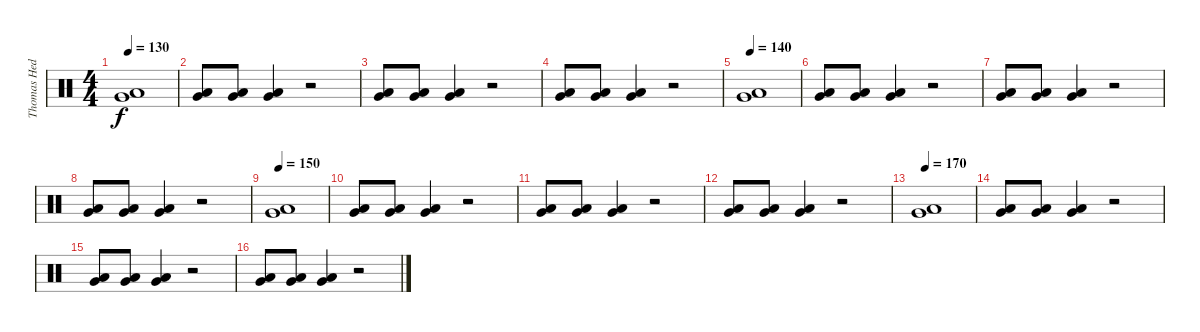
\track ("Thomas Hedlund" "Thomas Hed") {instrument percussion}
\staff {score}
\articulation defaults
\ts (4 4)
\tempo 130
\clef neutral
\ks c
("Very Low Tom (hit)" "Low Floor Tom (hit)").1{dy f} |
("Very Low Tom (hit)" "Low Floor Tom (hit)").8 ("Very Low Tom (hit)" "Low Floor Tom (hit)").8 ("Very Low Tom (hit)" "Low Floor Tom (hit)").4 r.2 |
("Very Low Tom (hit)" "Low Floor Tom (hit)").8 ("Very Low Tom (hit)" "Low Floor Tom (hit)").8 ("Very Low Tom (hit)" "Low Floor Tom (hit)").4 r.2 |
("Very Low Tom (hit)" "Low Floor Tom (hit)").8 ("Very Low Tom (hit)" "Low Floor Tom (hit)").8 ("Very Low Tom (hit)" "Low Floor Tom (hit)").4 r.2 |
\tempo 140
("Very Low Tom (hit)" "Low Floor Tom (hit)").1 |
("Very Low Tom (hit)" "Low Floor Tom (hit)").8 ("Very Low Tom (hit)" "Low Floor Tom (hit)").8 ("Very Low Tom (hit)" "Low Floor Tom (hit)").4 r.2 |
("Very Low Tom (hit)" "Low Floor Tom (hit)").8 ("Very Low Tom (hit)" "Low Floor Tom (hit)").8 ("Very Low Tom (hit)" "Low Floor Tom (hit)").4 r.2 |
("Very Low Tom (hit)" "Low Floor Tom (hit)").8 ("Very Low Tom (hit)" "Low Floor Tom (hit)").8 ("Very Low Tom (hit)" "Low Floor Tom (hit)").4 r.2 |
\tempo 150
("Very Low Tom (hit)" "Low Floor Tom (hit)").1 |
("Very Low Tom (hit)" "Low Floor Tom (hit)").8 ("Very Low Tom (hit)" "Low Floor Tom (hit)").8 ("Very Low Tom (hit)" "Low Floor Tom (hit)").4 r.2 |
("Very Low Tom (hit)" "Low Floor Tom (hit)").8 ("Very Low Tom (hit)" "Low Floor Tom (hit)").8 ("Very Low Tom (hit)" "Low Floor Tom (hit)").4 r.2 |
("Very Low Tom (hit)" "Low Floor Tom (hit)").8 ("Very Low Tom (hit)" "Low Floor Tom (hit)").8 ("Very Low Tom (hit)" "Low Floor Tom (hit)").4 r.2 |
\tempo 170
("Very Low Tom (hit)" "Low Floor Tom (hit)").1 |
("Very Low Tom (hit)" "Low Floor Tom (hit)").8 ("Very Low Tom (hit)" "Low Floor Tom (hit)").8 ("Very Low Tom (hit)" "Low Floor Tom (hit)").4 r.2 |
("Very Low Tom (hit)" "Low Floor Tom (hit)").8 ("Very Low Tom (hit)" "Low Floor Tom (hit)").8 ("Very Low Tom (hit)" "Low Floor Tom (hit)").4 r.2 |
("Very Low Tom (hit)" "Low Floor Tom (hit)").8 ("Very Low Tom (hit)" "Low Floor Tom (hit)").8 ("Very Low Tom (hit)" "Low Floor Tom (hit)").4 r.2
